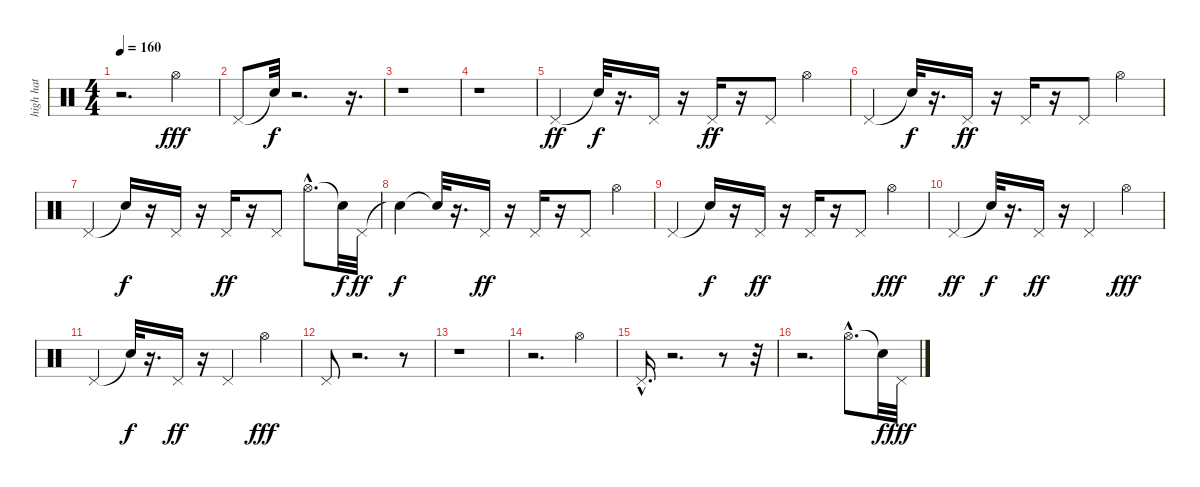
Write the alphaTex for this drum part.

\track ("high hat" "high hat") {instrument percussion}
\staff {score}
\articulation defaults
\ts (4 4)
\tempo 160
\clef neutral
\ks c
r.2{d dy f} "Hi-Hat (open)".4{dy fff} |
"Pedal Hi-Hat (hit)".8 "Snare (hit)"{t}.32{dy f} r.2{d} r.16{d} |
r.1 |
r.1 |
"Pedal Hi-Hat (hit)".4{dy ff} "Snare (hit)"{t}.32{dy f} r.16{d} "Pedal Hi-Hat (hit)".16 r.16 "Pedal Hi-Hat (hit)".16{dy ff} r.16 "Pedal Hi-Hat (hit)".8 "Hi-Hat (open)".4 |
"Pedal Hi-Hat (hit)".4 "Snare (hit)"{t}.32{dy f} r.16{d} "Pedal Hi-Hat (hit)".16{dy ff} r.16 "Pedal Hi-Hat (hit)".16 r.16 "Pedal Hi-Hat (hit)".8 "Hi-Hat (open)".4 |
"Pedal Hi-Hat (hit)".4 "Snare (hit)"{t}.16{dy f} r.16 "Pedal Hi-Hat (hit)".16 r.16 "Pedal Hi-Hat (hit)".16{dy ff} r.16 "Pedal Hi-Hat (hit)".8 "Hi-Hat (open)"{hac}.8{d} "Snare (hit)"{t}.32{dy f} "Pedal Hi-Hat (hit)".32{dy ff} |
"Snare (hit)"{t}.4{dy f} "Snare (hit)"{t}.32 r.16{d} "Pedal Hi-Hat (hit)".16{dy ff} r.16 "Pedal Hi-Hat (hit)".16 r.16 "Pedal Hi-Hat (hit)".8 "Hi-Hat (open)".4 |
"Pedal Hi-Hat (hit)".4 "Snare (hit)"{t}.16{dy f} r.16 "Pedal Hi-Hat (hit)".16{dy ff} r.16 "Pedal Hi-Hat (hit)".16 r.16 "Pedal Hi-Hat (hit)".8 "Hi-Hat (open)".4{dy fff} |
"Pedal Hi-Hat (hit)".4{dy ff} "Snare (hit)"{t}.32{dy f} r.16{d} "Pedal Hi-Hat (hit)".16{dy ff} r.16 "Pedal Hi-Hat (hit)".4 "Hi-Hat (open)".4{dy fff} |
"Pedal Hi-Hat (hit)".4 "Snare (hit)"{t}.32{dy f} r.16{d} "Pedal Hi-Hat (hit)".16{dy ff} r.16 "Pedal Hi-Hat (hit)".4 "Hi-Hat (open)".4{dy fff} |
"Pedal Hi-Hat (hit)".8 r.2{d} r.8 |
r.1 |
r.2{d} "Hi-Hat (open)".4 |
"Pedal Hi-Hat (hit)"{hac}.16{d} r.2{d} r.8 r.32 |
r.2{d} "Hi-Hat (open)"{hac}.8{d} "Snare (hit)"{t}.32{dy f} "Pedal Hi-Hat (hit)".32{dy fff}
